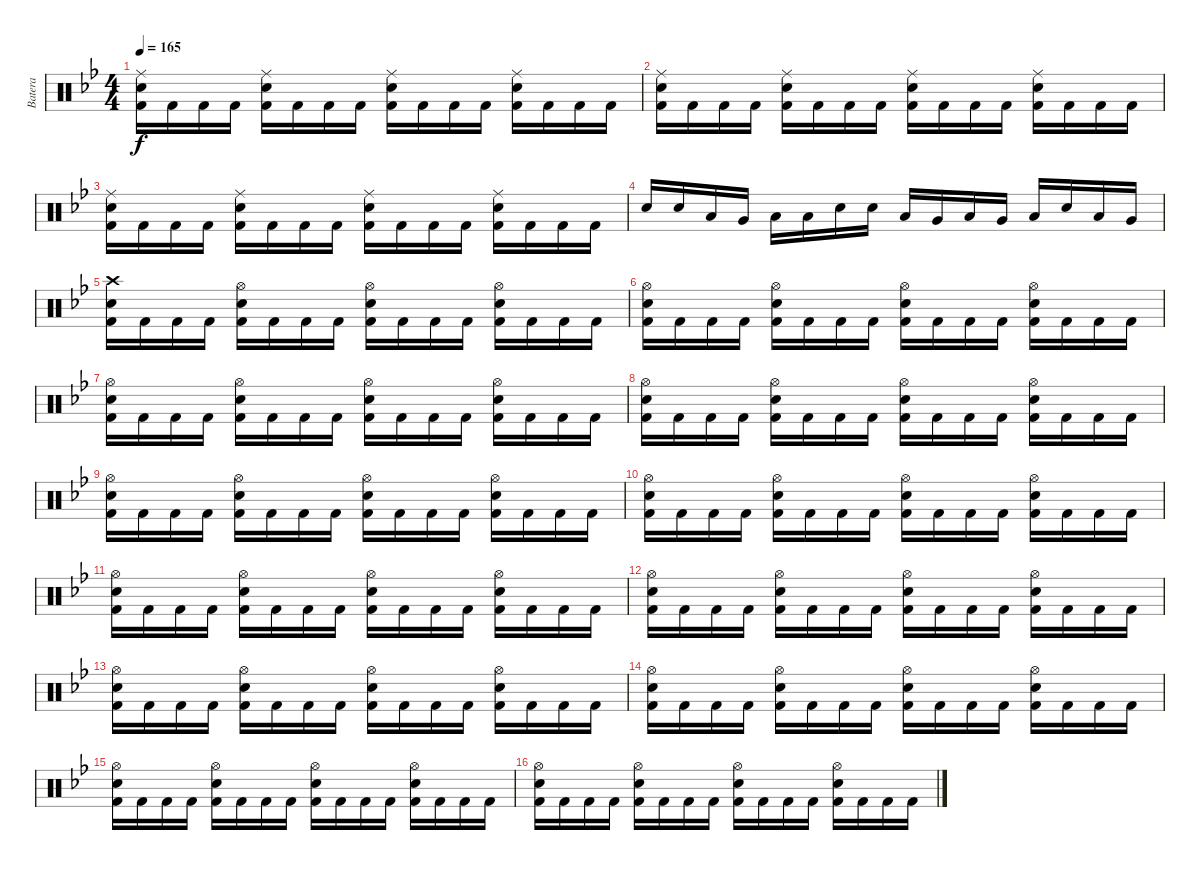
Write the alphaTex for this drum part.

\track ("Batera" "Batera") {instrument percussion}
\staff {score}
\articulation defaults
\ts (4 4)
\tempo 165
\clef neutral
\ks bb
("Ride (middle)" "Electric Snare (hit)" "Kick (hit) 2").16{dy f} "Kick (hit) 2".16 "Kick (hit) 2".16 "Kick (hit) 2".16 ("Ride (middle)" "Electric Snare (hit)" "Kick (hit) 2").16 "Kick (hit) 2".16 "Kick (hit) 2".16 "Kick (hit) 2".16 ("Ride (middle)" "Electric Snare (hit)" "Kick (hit) 2").16 "Kick (hit) 2".16 "Kick (hit) 2".16 "Kick (hit) 2".16 ("Ride (middle)" "Electric Snare (hit)" "Kick (hit) 2").16 "Kick (hit) 2".16 "Kick (hit) 2".16 "Kick (hit) 2".16 |
("Ride (middle)" "Electric Snare (hit)" "Kick (hit) 2").16 "Kick (hit) 2".16 "Kick (hit) 2".16 "Kick (hit) 2".16 ("Ride (middle)" "Electric Snare (hit)" "Kick (hit) 2").16 "Kick (hit) 2".16 "Kick (hit) 2".16 "Kick (hit) 2".16 ("Ride (middle)" "Electric Snare (hit)" "Kick (hit) 2").16 "Kick (hit) 2".16 "Kick (hit) 2".16 "Kick (hit) 2".16 ("Ride (middle)" "Electric Snare (hit)" "Kick (hit) 2").16 "Kick (hit) 2".16 "Kick (hit) 2".16 "Kick (hit) 2".16 |
("Ride (middle)" "Electric Snare (hit)" "Kick (hit) 2").16 "Kick (hit) 2".16 "Kick (hit) 2".16 "Kick (hit) 2".16 ("Ride (middle)" "Electric Snare (hit)" "Kick (hit) 2").16 "Kick (hit) 2".16 "Kick (hit) 2".16 "Kick (hit) 2".16 ("Ride (middle)" "Electric Snare (hit)" "Kick (hit) 2").16 "Kick (hit) 2".16 "Kick (hit) 2".16 "Kick (hit) 2".16 ("Ride (middle)" "Electric Snare (hit)" "Kick (hit) 2").16 "Kick (hit) 2".16 "Kick (hit) 2".16 "Kick (hit) 2".16 |
"Electric Snare (hit)".16 "Electric Snare (hit)".16 "Low Floor Tom (hit)".16 "Very Low Tom (hit)".16 "Low Floor Tom (hit)".16 "Low Tom (hit)".16 "Electric Snare (hit)".16 "Electric Snare (hit)".16 "Low Tom (hit)".16 "Very Low Tom (hit)".16 "Low Floor Tom (hit)".16 "Very Low Tom (hit)".16 "Low Floor Tom (hit)".16 "Electric Snare (hit)".16 "Low Floor Tom (hit)".16 "Very Low Tom (hit)".16 |
("Crash high (hit)" "Electric Snare (hit)" "Kick (hit) 2").16 "Kick (hit) 2".16 "Kick (hit) 2".16 "Kick (hit) 2".16 ("Hi-Hat (open)" "Electric Snare (hit)" "Kick (hit) 2").16 "Kick (hit) 2".16 "Kick (hit) 2".16 "Kick (hit) 2".16 ("Hi-Hat (open)" "Electric Snare (hit)" "Kick (hit) 2").16 "Kick (hit) 2".16 "Kick (hit) 2".16 "Kick (hit) 2".16 ("Hi-Hat (open)" "Electric Snare (hit)" "Kick (hit) 2").16 "Kick (hit) 2".16 "Kick (hit) 2".16 "Kick (hit) 2".16 |
("Hi-Hat (open)" "Electric Snare (hit)" "Kick (hit) 2").16 "Kick (hit) 2".16 "Kick (hit) 2".16 "Kick (hit) 2".16 ("Hi-Hat (open)" "Electric Snare (hit)" "Kick (hit) 2").16 "Kick (hit) 2".16 "Kick (hit) 2".16 "Kick (hit) 2".16 ("Hi-Hat (open)" "Electric Snare (hit)" "Kick (hit) 2").16 "Kick (hit) 2".16 "Kick (hit) 2".16 "Kick (hit) 2".16 ("Hi-Hat (open)" "Electric Snare (hit)" "Kick (hit) 2").16 "Kick (hit) 2".16 "Kick (hit) 2".16 "Kick (hit) 2".16 |
("Hi-Hat (open)" "Electric Snare (hit)" "Kick (hit) 2").16 "Kick (hit) 2".16 "Kick (hit) 2".16 "Kick (hit) 2".16 ("Hi-Hat (open)" "Electric Snare (hit)" "Kick (hit) 2").16 "Kick (hit) 2".16 "Kick (hit) 2".16 "Kick (hit) 2".16 ("Hi-Hat (open)" "Electric Snare (hit)" "Kick (hit) 2").16 "Kick (hit) 2".16 "Kick (hit) 2".16 "Kick (hit) 2".16 ("Hi-Hat (open)" "Electric Snare (hit)" "Kick (hit) 2").16 "Kick (hit) 2".16 "Kick (hit) 2".16 "Kick (hit) 2".16 |
("Hi-Hat (open)" "Electric Snare (hit)" "Kick (hit) 2").16 "Kick (hit) 2".16 "Kick (hit) 2".16 "Kick (hit) 2".16 ("Hi-Hat (open)" "Electric Snare (hit)" "Kick (hit) 2").16 "Kick (hit) 2".16 "Kick (hit) 2".16 "Kick (hit) 2".16 ("Hi-Hat (open)" "Electric Snare (hit)" "Kick (hit) 2").16 "Kick (hit) 2".16 "Kick (hit) 2".16 "Kick (hit) 2".16 ("Hi-Hat (open)" "Electric Snare (hit)" "Kick (hit) 2").16 "Kick (hit) 2".16 "Kick (hit) 2".16 "Kick (hit) 2".16 |
("Hi-Hat (open)" "Electric Snare (hit)" "Kick (hit) 2").16 "Kick (hit) 2".16 "Kick (hit) 2".16 "Kick (hit) 2".16 ("Hi-Hat (open)" "Electric Snare (hit)" "Kick (hit) 2").16 "Kick (hit) 2".16 "Kick (hit) 2".16 "Kick (hit) 2".16 ("Hi-Hat (open)" "Electric Snare (hit)" "Kick (hit) 2").16 "Kick (hit) 2".16 "Kick (hit) 2".16 "Kick (hit) 2".16 ("Hi-Hat (open)" "Electric Snare (hit)" "Kick (hit) 2").16 "Kick (hit) 2".16 "Kick (hit) 2".16 "Kick (hit) 2".16 |
("Hi-Hat (open)" "Electric Snare (hit)" "Kick (hit) 2").16 "Kick (hit) 2".16 "Kick (hit) 2".16 "Kick (hit) 2".16 ("Hi-Hat (open)" "Electric Snare (hit)" "Kick (hit) 2").16 "Kick (hit) 2".16 "Kick (hit) 2".16 "Kick (hit) 2".16 ("Hi-Hat (open)" "Electric Snare (hit)" "Kick (hit) 2").16 "Kick (hit) 2".16 "Kick (hit) 2".16 "Kick (hit) 2".16 ("Hi-Hat (open)" "Electric Snare (hit)" "Kick (hit) 2").16 "Kick (hit) 2".16 "Kick (hit) 2".16 "Kick (hit) 2".16 |
("Hi-Hat (open)" "Electric Snare (hit)" "Kick (hit) 2").16 "Kick (hit) 2".16 "Kick (hit) 2".16 "Kick (hit) 2".16 ("Hi-Hat (open)" "Electric Snare (hit)" "Kick (hit) 2").16 "Kick (hit) 2".16 "Kick (hit) 2".16 "Kick (hit) 2".16 ("Hi-Hat (open)" "Electric Snare (hit)" "Kick (hit) 2").16 "Kick (hit) 2".16 "Kick (hit) 2".16 "Kick (hit) 2".16 ("Hi-Hat (open)" "Electric Snare (hit)" "Kick (hit) 2").16 "Kick (hit) 2".16 "Kick (hit) 2".16 "Kick (hit) 2".16 |
("Hi-Hat (open)" "Electric Snare (hit)" "Kick (hit) 2").16 "Kick (hit) 2".16 "Kick (hit) 2".16 "Kick (hit) 2".16 ("Hi-Hat (open)" "Electric Snare (hit)" "Kick (hit) 2").16 "Kick (hit) 2".16 "Kick (hit) 2".16 "Kick (hit) 2".16 ("Hi-Hat (open)" "Electric Snare (hit)" "Kick (hit) 2").16 "Kick (hit) 2".16 "Kick (hit) 2".16 "Kick (hit) 2".16 ("Hi-Hat (open)" "Electric Snare (hit)" "Kick (hit) 2").16 "Kick (hit) 2".16 "Kick (hit) 2".16 "Kick (hit) 2".16 |
("Hi-Hat (open)" "Electric Snare (hit)" "Kick (hit) 2").16 "Kick (hit) 2".16 "Kick (hit) 2".16 "Kick (hit) 2".16 ("Hi-Hat (open)" "Electric Snare (hit)" "Kick (hit) 2").16 "Kick (hit) 2".16 "Kick (hit) 2".16 "Kick (hit) 2".16 ("Hi-Hat (open)" "Electric Snare (hit)" "Kick (hit) 2").16 "Kick (hit) 2".16 "Kick (hit) 2".16 "Kick (hit) 2".16 ("Hi-Hat (open)" "Electric Snare (hit)" "Kick (hit) 2").16 "Kick (hit) 2".16 "Kick (hit) 2".16 "Kick (hit) 2".16 |
("Hi-Hat (open)" "Electric Snare (hit)" "Kick (hit) 2").16 "Kick (hit) 2".16 "Kick (hit) 2".16 "Kick (hit) 2".16 ("Hi-Hat (open)" "Electric Snare (hit)" "Kick (hit) 2").16 "Kick (hit) 2".16 "Kick (hit) 2".16 "Kick (hit) 2".16 ("Hi-Hat (open)" "Electric Snare (hit)" "Kick (hit) 2").16 "Kick (hit) 2".16 "Kick (hit) 2".16 "Kick (hit) 2".16 ("Hi-Hat (open)" "Electric Snare (hit)" "Kick (hit) 2").16 "Kick (hit) 2".16 "Kick (hit) 2".16 "Kick (hit) 2".16 |
("Hi-Hat (open)" "Electric Snare (hit)" "Kick (hit) 2").16 "Kick (hit) 2".16 "Kick (hit) 2".16 "Kick (hit) 2".16 ("Hi-Hat (open)" "Electric Snare (hit)" "Kick (hit) 2").16 "Kick (hit) 2".16 "Kick (hit) 2".16 "Kick (hit) 2".16 ("Hi-Hat (open)" "Electric Snare (hit)" "Kick (hit) 2").16 "Kick (hit) 2".16 "Kick (hit) 2".16 "Kick (hit) 2".16 ("Hi-Hat (open)" "Electric Snare (hit)" "Kick (hit) 2").16 "Kick (hit) 2".16 "Kick (hit) 2".16 "Kick (hit) 2".16 |
("Hi-Hat (open)" "Electric Snare (hit)" "Kick (hit) 2").16 "Kick (hit) 2".16 "Kick (hit) 2".16 "Kick (hit) 2".16 ("Hi-Hat (open)" "Electric Snare (hit)" "Kick (hit) 2").16 "Kick (hit) 2".16 "Kick (hit) 2".16 "Kick (hit) 2".16 ("Hi-Hat (open)" "Electric Snare (hit)" "Kick (hit) 2").16 "Kick (hit) 2".16 "Kick (hit) 2".16 "Kick (hit) 2".16 ("Hi-Hat (open)" "Electric Snare (hit)" "Kick (hit) 2").16 "Kick (hit) 2".16 "Kick (hit) 2".16 "Kick (hit) 2".16
